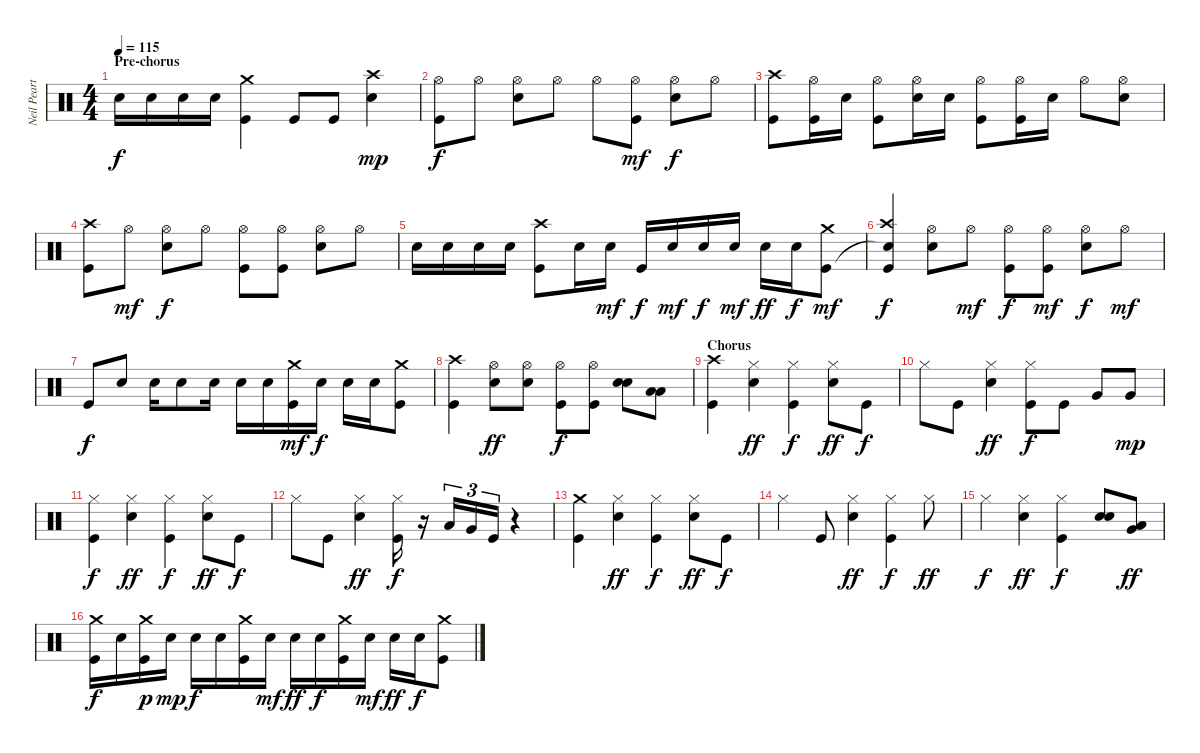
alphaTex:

\track ("Neil Peart - Drums" "Neil Peart") {instrument percussion}
\staff {score}
\articulation defaults
\ts (4 4)
\section ("" "Pre-chorus")
\tempo 115
\clef neutral
\ks c "Electric Snare (hit)".16{dy f} "Electric Snare (hit)".16 "Electric Snare (hit)".16 "Electric Snare (hit)".16
("Crash medium (hit)" "Kick (hit)").4 "Kick (hit)".8 "Kick (hit)".8 ("Crash high (hit)" "Electric Snare (hit)").4{dy mp} |
("Hi-Hat (open)" "Kick (hit)").8{dy f} "Hi-Hat (open)".8 ("Hi-Hat (open)" "Electric Snare (hit)").8 "Hi-Hat (open)".8 "Hi-Hat (open)".8 ("Hi-Hat (open)" "Kick (hit)").8{dy mf} ("Hi-Hat (open)" "Electric Snare (hit)").8{dy f} "Hi-Hat (open)".8 |
("Crash high (hit)" "Kick (hit)").8 ("Hi-Hat (open)" "Kick (hit)").16 "Electric Snare (hit)".16 ("Hi-Hat (open)" "Kick (hit)").8 ("Hi-Hat (open)" "Electric Snare (hit)").16 "Electric Snare (hit)".16 ("Hi-Hat (open)" "Kick (hit)").8 ("Hi-Hat (open)" "Kick (hit)").16 "Electric Snare (hit)".16 "Hi-Hat (open)".8 ("Hi-Hat (open)" "Electric Snare (hit)").8 |
("Crash high (hit)" "Kick (hit)").8 "Hi-Hat (open)".8{dy mf} ("Hi-Hat (open)" "Electric Snare (hit)").8{dy f} "Hi-Hat (open)".8 ("Hi-Hat (open)" "Kick (hit)").8 ("Hi-Hat (open)" "Kick (hit)").8 ("Hi-Hat (open)" "Electric Snare (hit)").8 "Hi-Hat (open)".8 |
"Electric Snare (hit)".16 "Electric Snare (hit)".16 "Electric Snare (hit)".16 "Electric Snare (hit)".16 ("Crash high (hit)" "Kick (hit)").8 "Electric Snare (hit)".16 "Electric Snare (hit)".16{dy mf} "Kick (hit)".16{dy f} "Electric Snare (hit)".16{dy mf} "Electric Snare (hit)".16{dy f} "Electric Snare (hit)".16{dy mf} "Electric Snare (hit)".16{dy ff} "Electric Snare (hit)".16{dy f} ("Crash medium (hit)" "Kick (hit)").8{dy mf} |
("Crash high (hit)" "Snare (hit)"{t} "Kick (hit)").4{dy f} ("Hi-Hat (open)" "Electric Snare (hit)").8 "Hi-Hat (open)".8{dy mf} ("Hi-Hat (open)" "Kick (hit)").8{dy f} ("Hi-Hat (open)" "Kick (hit)").8{dy mf} ("Hi-Hat (open)" "Electric Snare (hit)").8{dy f} "Hi-Hat (open)".8{dy mf} |
"Kick (hit)".8{dy f} "Electric Snare (hit)".8 "Electric Snare (hit)".16 "Electric Snare (hit)".8 "Electric Snare (hit)".16 "Electric Snare (hit)".16 "Electric Snare (hit)".16 ("Crash medium (hit)" "Kick (hit)").16{dy mf} "Electric Snare (hit)".16{dy f} "Electric Snare (hit)".16 "Electric Snare (hit)".16 ("Crash medium (hit)" "Kick (hit)").8 |
("Crash high (hit)" "Kick (hit)").4 ("Hi-Hat (open)" "Electric Snare (hit)").8{dy ff} ("Hi-Hat (open)" "Electric Snare (hit)").8 ("Hi-Hat (open)" "Kick (hit)").8{dy f} ("Hi-Hat (open)" "Kick (hit)").8 ("Electric Snare (hit)" "Electric Snare (hit)").8 ("Low Tom (hit)" "Low Tom (hit)").8 |
\section ("" "Chorus")
("Crash high (hit)" "Kick (hit)").4 ("Hi-Hat (closed)" "Electric Snare (hit)").4{dy ff} ("Hi-Hat (closed)" "Kick (hit)").4{dy f} ("Hi-Hat (closed)" "Electric Snare (hit)").8{dy ff} "Kick (hit)".8{dy f} |
"Hi-Hat (closed)".8 "Kick (hit)".8 ("Hi-Hat (closed)" "Electric Snare (hit)").4{dy ff} ("Hi-Hat (closed)" "Kick (hit)").8{dy f} "Kick (hit)".8 "Very Low Tom (hit)".8 "Very Low Tom (hit)".8{dy mp} |
("Hi-Hat (closed)" "Kick (hit)").4{dy f} ("Hi-Hat (closed)" "Electric Snare (hit)").4{dy ff} ("Hi-Hat (closed)" "Kick (hit)").4{dy f} ("Hi-Hat (closed)" "Electric Snare (hit)").8{dy ff} "Kick (hit)".8{dy f} |
"Hi-Hat (closed)".8 "Kick (hit)".8 ("Hi-Hat (closed)" "Electric Snare (hit)").4{dy ff} ("Hi-Hat (closed)" "Kick (hit)").16{dy f} r.16 "Low Tom (hit)".16{tu (3 2)} "Very Low Tom (hit)".16{tu (3 2)} "Kick (hit)".16{tu (3 2)} r.4 |
("Crash medium (hit)" "Kick (hit)").4 ("Hi-Hat (closed)" "Electric Snare (hit)").4{dy ff} ("Hi-Hat (closed)" "Kick (hit)").4{dy f} ("Hi-Hat (closed)" "Electric Snare (hit)").8{dy ff} "Kick (hit)".8{dy f} |
"Hi-Hat (closed)".4 "Kick (hit)".8 ("Hi-Hat (closed)" "Electric Snare (hit)").4{dy ff} ("Hi-Hat (closed)" "Kick (hit)").4{dy f} "Hi-Hat (closed)".8{dy ff} |
"Hi-Hat (closed)".4{dy f} ("Hi-Hat (closed)" "Electric Snare (hit)").4{dy ff} ("Hi-Hat (closed)" "Kick (hit)").4{dy f} ("Electric Snare (hit)" "Electric Snare (hit)").8 ("Very Low Tom (hit)" "Low Floor Tom (hit)").8{dy ff} |
("Crash medium (hit)" "Kick (hit)").16{dy f} "Electric Snare (hit)".16 ("Crash medium (hit)" "Kick (hit)").16{dy p} "Electric Snare (hit)".16{dy mp} "Electric Snare (hit)".16{dy f} "Electric Snare (hit)".16 ("Crash medium (hit)" "Kick (hit)").16 "Electric Snare (hit)".16{dy mf} "Electric Snare (hit)".16{dy ff} "Electric Snare (hit)".16{dy f} ("Crash medium (hit)" "Kick (hit)").16 "Electric Snare (hit)".16{dy mf} "Electric Snare (hit)".16{dy ff} "Electric Snare (hit)".16{dy f} ("Crash medium (hit)" "Kick (hit)").8
